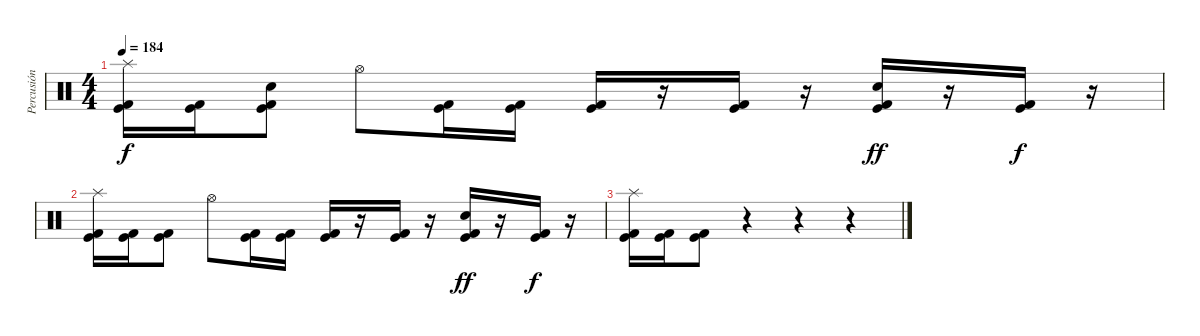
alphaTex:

\track ("Percusión" "Percusión") {instrument percussion}
\staff {score}
\articulation defaults
\ts (4 4)
\tempo 184
\clef neutral
\ks c
("Splash (hit)" "Kick (hit) 2" "Kick (hit)").16{dy f} ("Kick (hit) 2" "Kick (hit)").16 ("Electric Snare (hit)" "Kick (hit) 2" "Kick (hit)").8 "Hi-Hat (open)".8 ("Kick (hit) 2" "Kick (hit)").16 ("Kick (hit) 2" "Kick (hit)").16 ("Kick (hit) 2" "Kick (hit)").16 r.16 ("Kick (hit) 2" "Kick (hit)").16 r.16 ("Electric Snare (hit)" "Kick (hit) 2" "Kick (hit)").16{dy ff} r.16 ("Kick (hit) 2" "Kick (hit)").16{dy f} r.16 |
("Splash (hit)" "Kick (hit) 2" "Kick (hit)").16 ("Kick (hit) 2" "Kick (hit)").16 ("Kick (hit) 2" "Kick (hit)").8 "Hi-Hat (open)".8 ("Kick (hit) 2" "Kick (hit)").16 ("Kick (hit) 2" "Kick (hit)").16 ("Kick (hit) 2" "Kick (hit)").16 r.16 ("Kick (hit) 2" "Kick (hit)").16 r.16 ("Electric Snare (hit)" "Kick (hit) 2" "Kick (hit)").16{dy ff} r.16 ("Kick (hit) 2" "Kick (hit)").16{dy f} r.16 |
("Splash (hit)" "Kick (hit) 2" "Kick (hit)").16 ("Kick (hit) 2" "Kick (hit)").16 ("Kick (hit) 2" "Kick (hit)").8 r.4 r.4 r.4
